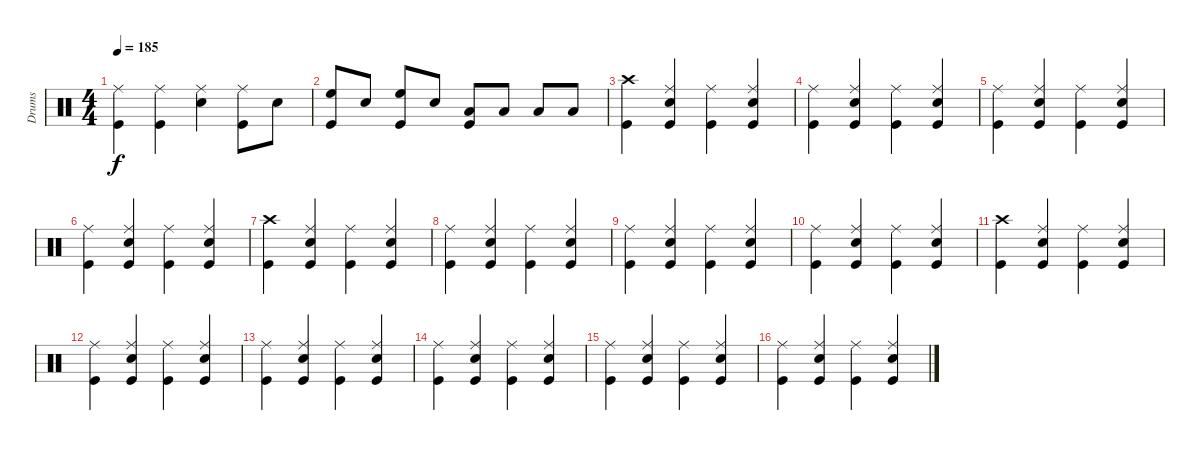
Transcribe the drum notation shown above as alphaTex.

\track ("Drums " "Drums ") {instrument percussion}
\staff {score}
\articulation defaults
\ts (4 4)
\tempo 185
\clef neutral
\ks c
("Kick (hit)" "Ride (middle)").4{dy f} ("Kick (hit)" "Ride (middle)").4 ("Snare (hit) 2" "Ride (middle)").4 ("Kick (hit)" "Ride (middle)").8 "Snare (hit) 2".8 |
("High Floor Tom (hit)" "Kick (hit)").8 "Snare (hit) 2".8 ("High Floor Tom (hit)" "Kick (hit)").8 "Snare (hit) 2".8 ("Low Floor Tom (hit)" "Kick (hit)").8 "Low Floor Tom (hit)".8 "Low Floor Tom (hit)".8 "Low Floor Tom (hit)".8 |
("Crash high (hit)" "Kick (hit)").4 ("Ride (middle)" "Snare (hit) 2" "Kick (hit)").4 ("Ride (middle)" "Kick (hit)").4 ("Ride (middle)" "Snare (hit) 2" "Kick (hit)").4 |
("Ride (middle)" "Kick (hit)").4 ("Ride (middle)" "Snare (hit) 2" "Kick (hit)").4 ("Ride (middle)" "Kick (hit)").4 ("Ride (middle)" "Snare (hit) 2" "Kick (hit)").4 |
("Ride (middle)" "Kick (hit)").4 ("Ride (middle)" "Snare (hit) 2" "Kick (hit)").4 ("Ride (middle)" "Kick (hit)").4 ("Ride (middle)" "Snare (hit) 2" "Kick (hit)").4 |
("Ride (middle)" "Kick (hit)").4 ("Ride (middle)" "Snare (hit) 2" "Kick (hit)").4 ("Ride (middle)" "Kick (hit)").4 ("Ride (middle)" "Snare (hit) 2" "Kick (hit)").4 |
("Crash high (hit)" "Kick (hit)").4 ("Ride (middle)" "Snare (hit) 2" "Kick (hit)").4 ("Ride (middle)" "Kick (hit)").4 ("Ride (middle)" "Snare (hit) 2" "Kick (hit)").4 |
("Ride (middle)" "Kick (hit)").4 ("Ride (middle)" "Snare (hit) 2" "Kick (hit)").4 ("Ride (middle)" "Kick (hit)").4 ("Ride (middle)" "Snare (hit) 2" "Kick (hit)").4 |
("Ride (middle)" "Kick (hit)").4 ("Ride (middle)" "Snare (hit) 2" "Kick (hit)").4 ("Ride (middle)" "Kick (hit)").4 ("Ride (middle)" "Snare (hit) 2" "Kick (hit)").4 |
("Ride (middle)" "Kick (hit)").4 ("Ride (middle)" "Snare (hit) 2" "Kick (hit)").4 ("Ride (middle)" "Kick (hit)").4 ("Ride (middle)" "Snare (hit) 2" "Kick (hit)").4 |
("Crash high (hit)" "Kick (hit)").4 ("Ride (middle)" "Snare (hit) 2" "Kick (hit)").4 ("Ride (middle)" "Kick (hit)").4 ("Ride (middle)" "Snare (hit) 2" "Kick (hit)").4 |
("Ride (middle)" "Kick (hit)").4 ("Ride (middle)" "Snare (hit) 2" "Kick (hit)").4 ("Ride (middle)" "Kick (hit)").4 ("Ride (middle)" "Snare (hit) 2" "Kick (hit)").4 |
("Ride (middle)" "Kick (hit)").4 ("Ride (middle)" "Snare (hit) 2" "Kick (hit)").4 ("Ride (middle)" "Kick (hit)").4 ("Ride (middle)" "Snare (hit) 2" "Kick (hit)").4 |
("Ride (middle)" "Kick (hit)").4 ("Ride (middle)" "Snare (hit) 2" "Kick (hit)").4 ("Ride (middle)" "Kick (hit)").4 ("Ride (middle)" "Snare (hit) 2" "Kick (hit)").4 |
("Ride (middle)" "Kick (hit)").4 ("Ride (middle)" "Snare (hit) 2" "Kick (hit)").4 ("Ride (middle)" "Kick (hit)").4 ("Ride (middle)" "Snare (hit) 2" "Kick (hit)").4 |
("Ride (middle)" "Kick (hit)").4 ("Ride (middle)" "Snare (hit) 2" "Kick (hit)").4 ("Ride (middle)" "Kick (hit)").4 ("Ride (middle)" "Snare (hit) 2" "Kick (hit)").4
